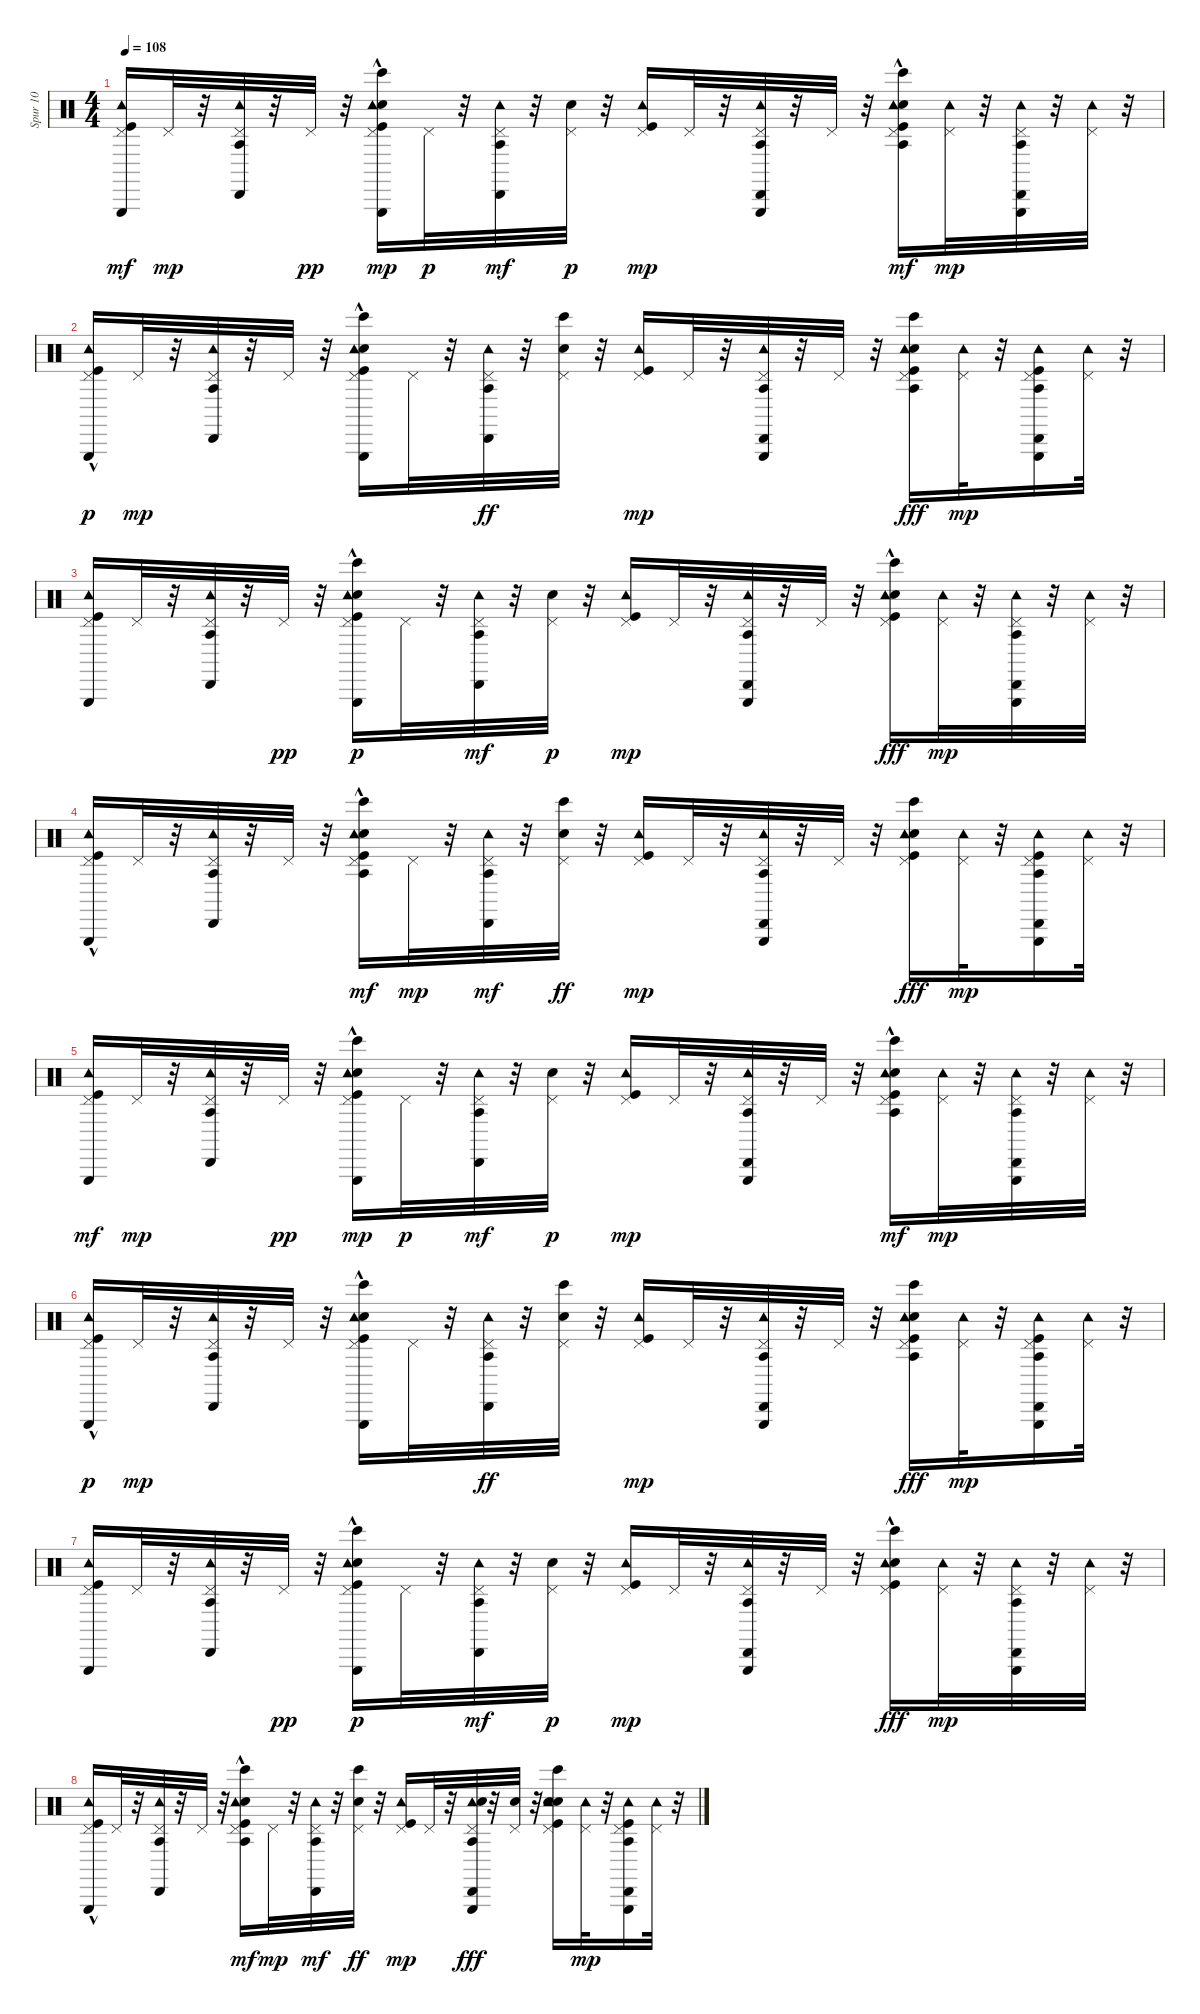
\track ("Spur 10" "Spur 10") {instrument percussion}
\staff {score}
\articulation defaults
\ts (4 4)
\tempo 108
\clef neutral
\ks c
("Kick (hit)" "Tambourine (hit)" "Pedal Hi-Hat (hit)" "Triangle (hit)").16{dy mf} "Pedal Hi-Hat (hit)".32{dy mp} r.32 ("Tambourine (hit)" "Pedal Hi-Hat (hit)" "Cabasa (hit)" "Agogo tow (hit)").32 r.32 "Pedal Hi-Hat (hit)".32{dy pp} r.32 ("Kick (hit)"{hac} "Snare (hit) 2"{hac} "Tambourine (hit)" "Pedal Hi-Hat (hit)" "Bongo High (hit)" "Triangle (hit)").16{dy mp} "Pedal Hi-Hat (hit)".32{dy p} r.32 ("Tambourine (hit)" "Pedal Hi-Hat (hit)" "Cabasa (hit)" "Agogo tow (hit)").32{dy mf} r.32 ("Snare (hit) 2" "Pedal Hi-Hat (hit)").32{dy p} r.32 ("Kick (hit)" "Tambourine (hit)" "Pedal Hi-Hat (hit)").16{dy mp} "Pedal Hi-Hat (hit)".32 r.32 ("Tambourine (hit)" "Pedal Hi-Hat (hit)" "Cabasa (hit)" "Agogo tow (hit)" "Triangle (hit)").32 r.32 "Pedal Hi-Hat (hit)".32 r.32 ("Snare (hit) 2" "Kick (hit)"{hac} "Tambourine (hit)" "Pedal Hi-Hat (hit)" "Bongo High (hit)" "Agogo tow (hit)").16{dy mf} ("Tambourine (hit)" "Pedal Hi-Hat (hit)").32{dy mp} r.32 ("Tambourine (hit)" "Pedal Hi-Hat (hit)" "Cabasa (hit)" "Agogo tow (hit)" "Triangle (hit)").32 r.32 ("Tambourine (hit)" "Pedal Hi-Hat (hit)").32 r.32 |
("Kick (hit)"{hac} "Tambourine (hit)" "Pedal Hi-Hat (hit)" "Triangle (hit)").16{dy p} "Pedal Hi-Hat (hit)".32{dy mp} r.32 ("Tambourine (hit)" "Pedal Hi-Hat (hit)" "Cabasa (hit)" "Agogo tow (hit)").32 r.32 "Pedal Hi-Hat (hit)".32 r.32 ("Kick (hit)"{hac} "Snare (hit) 2" "Tambourine (hit)" "Pedal Hi-Hat (hit)" "Bongo High (hit)"{hac} "Triangle (hit)").16 "Pedal Hi-Hat (hit)".32 r.32 ("Tambourine (hit)" "Pedal Hi-Hat (hit)" "Cabasa (hit)" "Agogo tow (hit)").32{dy ff} r.32 ("Snare (hit) 2" "Pedal Hi-Hat (hit)" "Bongo High (hit)").32 r.32 ("Kick (hit)" "Tambourine (hit)" "Pedal Hi-Hat (hit)").16{dy mp} "Pedal Hi-Hat (hit)".32 r.32 ("Tambourine (hit)" "Pedal Hi-Hat (hit)" "Cabasa (hit)" "Agogo tow (hit)" "Triangle (hit)").32 r.32 "Pedal Hi-Hat (hit)".32 r.32 ("Snare (hit) 2" "Kick (hit)" "Tambourine (hit)" "Pedal Hi-Hat (hit)" "Bongo High (hit)" "Agogo tow (hit)").16{dy fff} ("Tambourine (hit)" "Pedal Hi-Hat (hit)").32{dy mp} r.32 ("Kick (hit)" "Tambourine (hit)" "Pedal Hi-Hat (hit)" "Cabasa (hit)" "Agogo tow (hit)" "Triangle (hit)").16 ("Tambourine (hit)" "Pedal Hi-Hat (hit)").32 r.32 |
("Kick (hit)" "Tambourine (hit)" "Pedal Hi-Hat (hit)" "Triangle (hit)").16 "Pedal Hi-Hat (hit)".32 r.32 ("Tambourine (hit)" "Pedal Hi-Hat (hit)" "Cabasa (hit)" "Agogo tow (hit)").32 r.32 "Pedal Hi-Hat (hit)".32{dy pp} r.32 ("Kick (hit)"{hac} "Snare (hit) 2"{hac} "Tambourine (hit)" "Pedal Hi-Hat (hit)" "Bongo High (hit)" "Triangle (hit)").16{dy p} "Pedal Hi-Hat (hit)".32 r.32 ("Tambourine (hit)" "Pedal Hi-Hat (hit)" "Cabasa (hit)" "Agogo tow (hit)").32{dy mf} r.32 ("Snare (hit) 2" "Pedal Hi-Hat (hit)").32{dy p} r.32 ("Kick (hit)" "Tambourine (hit)" "Pedal Hi-Hat (hit)").16{dy mp} "Pedal Hi-Hat (hit)".32 r.32 ("Tambourine (hit)" "Pedal Hi-Hat (hit)" "Cabasa (hit)" "Agogo tow (hit)" "Triangle (hit)").32 r.32 "Pedal Hi-Hat (hit)".32 r.32 ("Snare (hit) 2" "Kick (hit)"{hac} "Tambourine (hit)" "Pedal Hi-Hat (hit)" "Bongo High (hit)").16{dy fff} ("Tambourine (hit)" "Pedal Hi-Hat (hit)").32{dy mp} r.32 ("Tambourine (hit)" "Pedal Hi-Hat (hit)" "Cabasa (hit)" "Agogo tow (hit)" "Triangle (hit)").32 r.32 ("Tambourine (hit)" "Pedal Hi-Hat (hit)").32 r.32 |
("Kick (hit)"{hac} "Tambourine (hit)" "Pedal Hi-Hat (hit)" "Triangle (hit)").16 "Pedal Hi-Hat (hit)".32 r.32 ("Tambourine (hit)" "Pedal Hi-Hat (hit)" "Cabasa (hit)" "Agogo tow (hit)").32 r.32 "Pedal Hi-Hat (hit)".32 r.32 ("Kick (hit)"{hac} "Snare (hit) 2" "Tambourine (hit)" "Pedal Hi-Hat (hit)" "Bongo High (hit)"{hac} "Agogo tow (hit)").16{dy mf} "Pedal Hi-Hat (hit)".32{dy mp} r.32 ("Tambourine (hit)" "Pedal Hi-Hat (hit)" "Cabasa (hit)" "Agogo tow (hit)").32{dy mf} r.32 ("Snare (hit) 2" "Pedal Hi-Hat (hit)" "Bongo High (hit)").32{dy ff} r.32 ("Kick (hit)" "Tambourine (hit)" "Pedal Hi-Hat (hit)").16{dy mp} "Pedal Hi-Hat (hit)".32 r.32 ("Tambourine (hit)" "Pedal Hi-Hat (hit)" "Cabasa (hit)" "Agogo tow (hit)" "Triangle (hit)").32 r.32 "Pedal Hi-Hat (hit)".32 r.32 ("Snare (hit) 2" "Kick (hit)" "Tambourine (hit)" "Pedal Hi-Hat (hit)" "Bongo High (hit)").16{dy fff} ("Tambourine (hit)" "Pedal Hi-Hat (hit)").32{dy mp} r.32 ("Kick (hit)" "Tambourine (hit)" "Pedal Hi-Hat (hit)" "Cabasa (hit)" "Agogo tow (hit)" "Triangle (hit)").16 ("Tambourine (hit)" "Pedal Hi-Hat (hit)").32 r.32 |
("Kick (hit)" "Tambourine (hit)" "Pedal Hi-Hat (hit)" "Triangle (hit)").16{dy mf} "Pedal Hi-Hat (hit)".32{dy mp} r.32 ("Tambourine (hit)" "Pedal Hi-Hat (hit)" "Cabasa (hit)" "Agogo tow (hit)").32 r.32 "Pedal Hi-Hat (hit)".32{dy pp} r.32 ("Kick (hit)"{hac} "Snare (hit) 2"{hac} "Tambourine (hit)" "Pedal Hi-Hat (hit)" "Bongo High (hit)" "Triangle (hit)").16{dy mp} "Pedal Hi-Hat (hit)".32{dy p} r.32 ("Tambourine (hit)" "Pedal Hi-Hat (hit)" "Cabasa (hit)" "Agogo tow (hit)").32{dy mf} r.32 ("Snare (hit) 2" "Pedal Hi-Hat (hit)").32{dy p} r.32 ("Kick (hit)" "Tambourine (hit)" "Pedal Hi-Hat (hit)").16{dy mp} "Pedal Hi-Hat (hit)".32 r.32 ("Tambourine (hit)" "Pedal Hi-Hat (hit)" "Cabasa (hit)" "Agogo tow (hit)" "Triangle (hit)").32 r.32 "Pedal Hi-Hat (hit)".32 r.32 ("Snare (hit) 2" "Kick (hit)"{hac} "Tambourine (hit)" "Pedal Hi-Hat (hit)" "Bongo High (hit)" "Agogo tow (hit)").16{dy mf} ("Tambourine (hit)" "Pedal Hi-Hat (hit)").32{dy mp} r.32 ("Tambourine (hit)" "Pedal Hi-Hat (hit)" "Cabasa (hit)" "Agogo tow (hit)" "Triangle (hit)").32 r.32 ("Tambourine (hit)" "Pedal Hi-Hat (hit)").32 r.32 |
("Kick (hit)"{hac} "Tambourine (hit)" "Pedal Hi-Hat (hit)" "Triangle (hit)").16{dy p} "Pedal Hi-Hat (hit)".32{dy mp} r.32 ("Tambourine (hit)" "Pedal Hi-Hat (hit)" "Cabasa (hit)" "Agogo tow (hit)").32 r.32 "Pedal Hi-Hat (hit)".32 r.32 ("Kick (hit)"{hac} "Snare (hit) 2" "Tambourine (hit)" "Pedal Hi-Hat (hit)" "Bongo High (hit)"{hac} "Triangle (hit)").16 "Pedal Hi-Hat (hit)".32 r.32 ("Tambourine (hit)" "Pedal Hi-Hat (hit)" "Cabasa (hit)" "Agogo tow (hit)").32{dy ff} r.32 ("Snare (hit) 2" "Pedal Hi-Hat (hit)" "Bongo High (hit)").32 r.32 ("Kick (hit)" "Tambourine (hit)" "Pedal Hi-Hat (hit)").16{dy mp} "Pedal Hi-Hat (hit)".32 r.32 ("Tambourine (hit)" "Pedal Hi-Hat (hit)" "Cabasa (hit)" "Agogo tow (hit)" "Triangle (hit)").32 r.32 "Pedal Hi-Hat (hit)".32 r.32 ("Snare (hit) 2" "Kick (hit)" "Tambourine (hit)" "Pedal Hi-Hat (hit)" "Bongo High (hit)" "Agogo tow (hit)").16{dy fff} ("Tambourine (hit)" "Pedal Hi-Hat (hit)").32{dy mp} r.32 ("Kick (hit)" "Tambourine (hit)" "Pedal Hi-Hat (hit)" "Cabasa (hit)" "Agogo tow (hit)" "Triangle (hit)").16 ("Tambourine (hit)" "Pedal Hi-Hat (hit)").32 r.32 |
("Kick (hit)" "Tambourine (hit)" "Pedal Hi-Hat (hit)" "Triangle (hit)").16 "Pedal Hi-Hat (hit)".32 r.32 ("Tambourine (hit)" "Pedal Hi-Hat (hit)" "Cabasa (hit)" "Agogo tow (hit)").32 r.32 "Pedal Hi-Hat (hit)".32{dy pp} r.32 ("Kick (hit)"{hac} "Snare (hit) 2"{hac} "Tambourine (hit)" "Pedal Hi-Hat (hit)" "Bongo High (hit)" "Triangle (hit)").16{dy p} "Pedal Hi-Hat (hit)".32 r.32 ("Tambourine (hit)" "Pedal Hi-Hat (hit)" "Cabasa (hit)" "Agogo tow (hit)").32{dy mf} r.32 ("Snare (hit) 2" "Pedal Hi-Hat (hit)").32{dy p} r.32 ("Kick (hit)" "Tambourine (hit)" "Pedal Hi-Hat (hit)").16{dy mp} "Pedal Hi-Hat (hit)".32 r.32 ("Tambourine (hit)" "Pedal Hi-Hat (hit)" "Cabasa (hit)" "Agogo tow (hit)" "Triangle (hit)").32 r.32 "Pedal Hi-Hat (hit)".32 r.32 ("Snare (hit) 2" "Kick (hit)"{hac} "Tambourine (hit)" "Pedal Hi-Hat (hit)" "Bongo High (hit)").16{dy fff} ("Tambourine (hit)" "Pedal Hi-Hat (hit)").32{dy mp} r.32 ("Tambourine (hit)" "Pedal Hi-Hat (hit)" "Cabasa (hit)" "Agogo tow (hit)" "Triangle (hit)").32 r.32 ("Tambourine (hit)" "Pedal Hi-Hat (hit)").32 r.32 |
("Kick (hit)"{hac} "Tambourine (hit)" "Pedal Hi-Hat (hit)" "Triangle (hit)").16 "Pedal Hi-Hat (hit)".32 r.32 ("Tambourine (hit)" "Pedal Hi-Hat (hit)" "Cabasa (hit)" "Agogo tow (hit)").32 r.32 "Pedal Hi-Hat (hit)".32 r.32 ("Kick (hit)"{hac} "Snare (hit) 2" "Tambourine (hit)" "Pedal Hi-Hat (hit)" "Bongo High (hit)"{hac} "Agogo tow (hit)").16{dy mf} "Pedal Hi-Hat (hit)".32{dy mp} r.32 ("Tambourine (hit)" "Pedal Hi-Hat (hit)" "Cabasa (hit)" "Agogo tow (hit)").32{dy mf} r.32 ("Snare (hit) 2" "Pedal Hi-Hat (hit)" "Bongo High (hit)").32{dy ff} r.32 ("Kick (hit)" "Tambourine (hit)" "Pedal Hi-Hat (hit)").16{dy mp} "Pedal Hi-Hat (hit)".32 r.32 ("Tambourine (hit)" "Pedal Hi-Hat (hit)" "Cabasa (hit)" "Agogo tow (hit)" "Triangle (hit)" "Snare (hit) 2").32{dy fff} r.32 ("Pedal Hi-Hat (hit)" "Snare (hit) 2").32 r.32 ("Snare (hit) 2" "Kick (hit)" "Tambourine (hit)" "Pedal Hi-Hat (hit)" "Bongo High (hit)" "Snare (hit) 2").16 ("Tambourine (hit)" "Pedal Hi-Hat (hit)").32{dy mp} r.32 ("Kick (hit)" "Tambourine (hit)" "Pedal Hi-Hat (hit)" "Cabasa (hit)" "Agogo tow (hit)" "Triangle (hit)").16 ("Tambourine (hit)" "Pedal Hi-Hat (hit)").32 r.32
